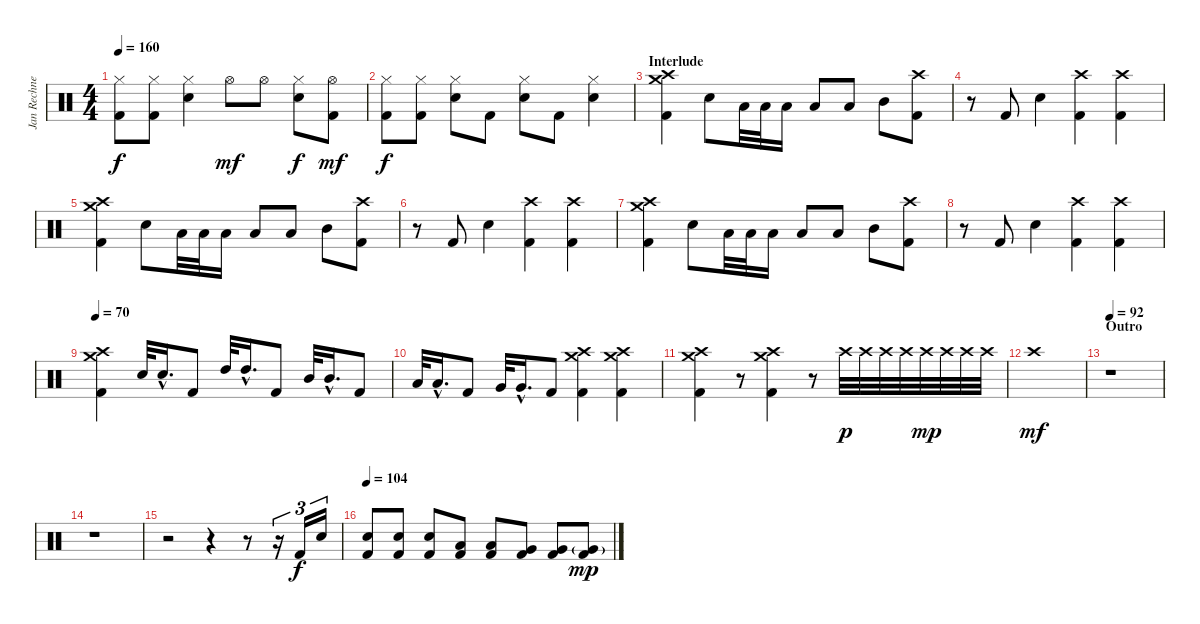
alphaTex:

\track ("Jan Rechnerger" "Jan Rechne") {instrument percussion}
\staff {score}
\articulation defaults
\ts (4 4)
\tempo 160
\clef neutral
\ks c
("Hi-Hat (closed)" "Kick (hit) 2").8{dy f} ("Hi-Hat (closed)" "Kick (hit) 2").8 ("Hi-Hat (closed)" "Snare (hit) 2").4 "Hi-Hat (open)".8{dy mf} "Hi-Hat (open)".8 ("Hi-Hat (closed)" "Snare (hit) 2").8{dy f} ("Hi-Hat (open)" "Kick (hit) 2").8{dy mf} |
("Hi-Hat (closed)" "Kick (hit) 2").8{dy f} ("Hi-Hat (closed)" "Kick (hit) 2").8 ("Hi-Hat (closed)" "Snare (hit) 2").8 "Kick (hit) 2".8 ("Hi-Hat (closed)" "Snare (hit) 2").8 "Kick (hit) 2".8 ("Hi-Hat (closed)" "Snare (hit) 2").4 |
\section ("" "Interlude")
("Crash high (hit)" "Crash medium (hit)" "Kick (hit) 2").4 "Snare (hit) 2".8 "Low Tom (hit)".32 "Low Tom (hit)".32 "Low Tom (hit)".16 "Low Tom (hit)".8 "Low Tom (hit)".8 "Mid Tom (hit)".8 ("Crash high (hit)" "Kick (hit) 2").8 |
r.8 "Kick (hit) 2".8 "Snare (hit) 2".4 ("Crash high (hit)" "Kick (hit) 2").4 ("Crash high (hit)" "Kick (hit) 2").4 |
("Crash high (hit)" "Crash medium (hit)" "Kick (hit) 2").4 "Snare (hit) 2".8 "Low Tom (hit)".32 "Low Tom (hit)".32 "Low Tom (hit)".16 "Low Tom (hit)".8 "Low Tom (hit)".8 "Mid Tom (hit)".8 ("Crash high (hit)" "Kick (hit) 2").8 |
r.8 "Kick (hit) 2".8 "Snare (hit) 2".4 ("Crash high (hit)" "Kick (hit) 2").4 ("Crash high (hit)" "Kick (hit) 2").4 |
("Crash high (hit)" "Crash medium (hit)" "Kick (hit) 2").4 "Snare (hit) 2".8 "Low Tom (hit)".32 "Low Tom (hit)".32 "Low Tom (hit)".16 "Low Tom (hit)".8 "Low Tom (hit)".8 "Mid Tom (hit)".8 ("Crash high (hit)" "Kick (hit) 2").8 |
r.8 "Kick (hit) 2".8 "Snare (hit) 2".4 ("Crash high (hit)" "Kick (hit) 2").4 ("Crash high (hit)" "Kick (hit) 2").4 |
\tempo 70
("Crash high (hit)" "Crash medium (hit)" "Kick (hit) 2").4 "Snare (hit) 2".32 "Snare (hit) 2"{hac}.16{d} "Kick (hit) 2".8 "High Tom (hit)".32 "High Tom (hit)"{hac}.16{d} "Kick (hit) 2".8 "Mid Tom (hit)".32 "Mid Tom (hit)"{hac}.16{d} "Kick (hit) 2".8 |
"Low Tom (hit)".32 "Low Tom (hit)"{hac}.16{d} "Kick (hit) 2".8 "Very Low Tom (hit)".32 "Very Low Tom (hit)"{hac}.16{d} "Kick (hit) 2".8 ("Crash high (hit)" "Crash medium (hit)" "Kick (hit) 2").4 ("Crash high (hit)" "Crash medium (hit)" "Kick (hit) 2").4 |
("Crash high (hit)" "Crash medium (hit)" "Kick (hit) 2").4 r.8 ("Crash high (hit)" "Crash medium (hit)" "Kick (hit) 2").4 r.8 "Crash high (hit)".32{dy p} "Crash high (hit)".32 "Crash high (hit)".32 "Crash high (hit)".32 "Crash high (hit)".32{dy mp} "Crash high (hit)".32 "Crash high (hit)".32 "Crash high (hit)".32 |
"Crash high (hit)".1{dy mf} |
\section ("" "Outro")
\tempo 92
r.1 |
r.1 |
r.2{volume 14} r.4 r.8 r.16{tu (3 2)} "Kick (hit) 2".16{tu (3 2) dy f} "Snare (hit) 2".16{tu (3 2)} |
\tempo 104
("Snare (hit) 2" "Kick (hit) 2").8 ("Snare (hit) 2" "Kick (hit) 2").8 ("Snare (hit) 2" "Kick (hit) 2").8 ("Low Tom (hit)" "Kick (hit) 2").8 ("Low Tom (hit)" "Kick (hit) 2").8 ("Very Low Tom (hit)" "Kick (hit) 2").8 ("Very Low Tom (hit)" "Kick (hit) 2").8 ("Very Low Tom (hit)"{g} "Kick (hit) 2").8{dy mp}
